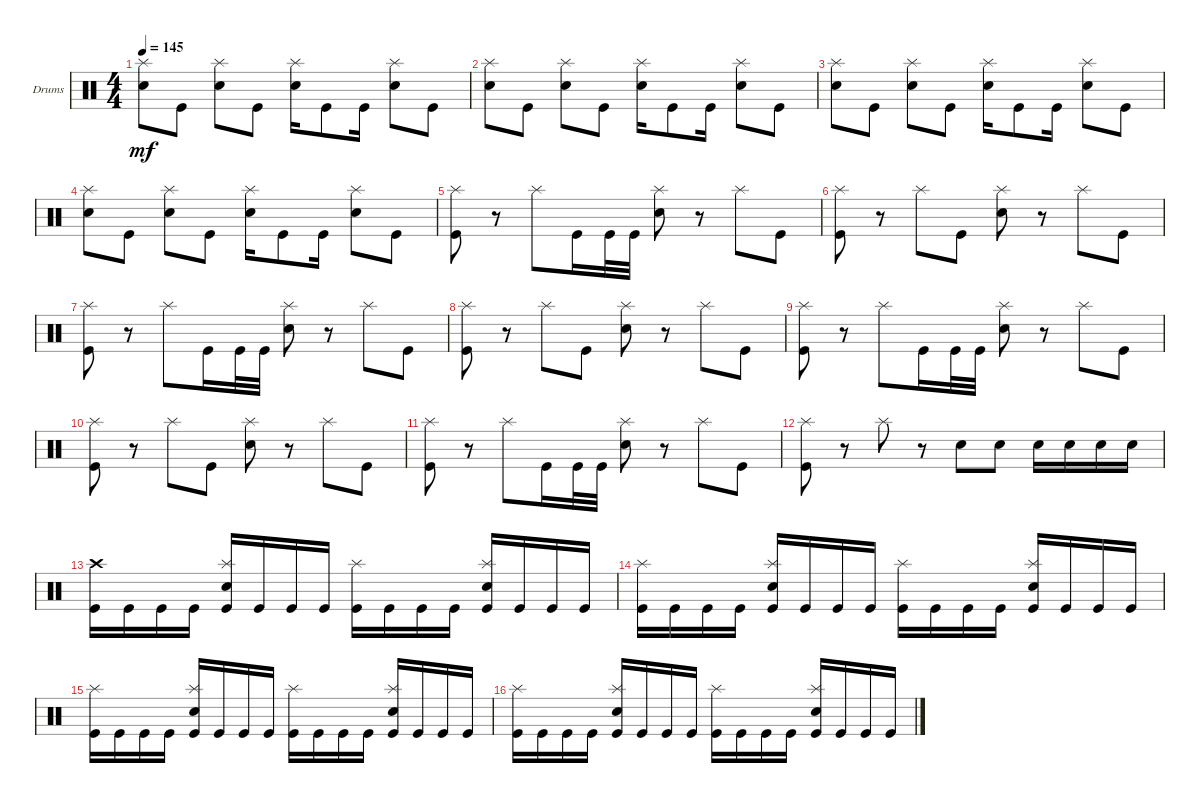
\bracketExtendMode groupsimilarinstruments
\firstSystemTrackNameOrientation horizontal
\otherSystemsTrackNameOrientation horizontal
\track ("Drumkit" "Drums") {instrument percussion}
\staff {score}
\articulation defaults
\ts (4 4)
\tempo 145
\clef neutral
\ks c
("Snare (hit) 2" "Splash (hit)").8{dy mf} "Kick (hit)".8 ("Snare (hit) 2" "Splash (hit)").8 "Kick (hit)".8 ("Snare (hit) 2" "Splash (hit)").16 "Kick (hit)".8 "Kick (hit)".16 ("Snare (hit) 2" "Splash (hit)").8 "Kick (hit)".8 |
("Snare (hit) 2" "Splash (hit)").8 "Kick (hit)".8 ("Snare (hit) 2" "Splash (hit)").8 "Kick (hit)".8 ("Snare (hit) 2" "Splash (hit)").16 "Kick (hit)".8 "Kick (hit)".16 ("Snare (hit) 2" "Splash (hit)").8 "Kick (hit)".8 |
("Snare (hit) 2" "Splash (hit)").8 "Kick (hit)".8 ("Snare (hit) 2" "Splash (hit)").8 "Kick (hit)".8 ("Snare (hit) 2" "Splash (hit)").16 "Kick (hit)".8 "Kick (hit)".16 ("Snare (hit) 2" "Splash (hit)").8 "Kick (hit)".8 |
("Snare (hit) 2" "Splash (hit)").8 "Kick (hit)".8 ("Snare (hit) 2" "Splash (hit)").8 "Kick (hit)".8 ("Snare (hit) 2" "Splash (hit)").16 "Kick (hit)".8 "Kick (hit)".16 ("Snare (hit) 2" "Splash (hit)").8 "Kick (hit)".8 |
("Kick (hit)" "Splash (hit)").8 r.8 "Splash (hit)".8 "Kick (hit)".16 "Kick (hit)".32 "Kick (hit)".32 ("Splash (hit)" "Snare (hit) 2").8 r.8 "Splash (hit)".8 "Kick (hit)".8 |
("Kick (hit)" "Splash (hit)").8 r.8 "Splash (hit)".8 "Kick (hit)".8 ("Splash (hit)" "Snare (hit) 2").8 r.8 "Splash (hit)".8 "Kick (hit)".8 |
("Kick (hit)" "Splash (hit)").8 r.8 "Splash (hit)".8 "Kick (hit)".16 "Kick (hit)".32 "Kick (hit)".32 ("Splash (hit)" "Snare (hit) 2").8 r.8 "Splash (hit)".8 "Kick (hit)".8 |
("Kick (hit)" "Splash (hit)").8 r.8 "Splash (hit)".8 "Kick (hit)".8 ("Splash (hit)" "Snare (hit) 2").8 r.8 "Splash (hit)".8 "Kick (hit)".8 |
("Kick (hit)" "Splash (hit)").8 r.8 "Splash (hit)".8 "Kick (hit)".16 "Kick (hit)".32 "Kick (hit)".32 ("Splash (hit)" "Snare (hit) 2").8 r.8 "Splash (hit)".8 "Kick (hit)".8 |
("Kick (hit)" "Splash (hit)").8 r.8 "Splash (hit)".8 "Kick (hit)".8 ("Splash (hit)" "Snare (hit) 2").8 r.8 "Splash (hit)".8 "Kick (hit)".8 |
("Kick (hit)" "Splash (hit)").8 r.8 "Splash (hit)".8 "Kick (hit)".16 "Kick (hit)".32 "Kick (hit)".32 ("Splash (hit)" "Snare (hit) 2").8 r.8 "Splash (hit)".8 "Kick (hit)".8 |
("Kick (hit)" "Splash (hit)").8 r.8 "Splash (hit)".8 r.8 "Snare (hit) 2".8 "Snare (hit) 2".8 "Snare (hit) 2".16 "Snare (hit) 2".16 "Snare (hit) 2".16 "Snare (hit) 2".16 |
("Kick (hit)" "Crash high (hit)").16 "Kick (hit)".16 "Kick (hit)".16 "Kick (hit)".16 ("Kick (hit)" "Snare (hit) 2" "Splash (hit)").16 "Kick (hit)".16 "Kick (hit)".16 "Kick (hit)".16 ("Kick (hit)" "Splash (hit)").16 "Kick (hit)".16 "Kick (hit)".16 "Kick (hit)".16 ("Kick (hit)" "Snare (hit) 2" "Splash (hit)").16 "Kick (hit)".16 "Kick (hit)".16 "Kick (hit)".16 |
("Kick (hit)" "Splash (hit)").16 "Kick (hit)".16 "Kick (hit)".16 "Kick (hit)".16 ("Kick (hit)" "Snare (hit) 2" "Splash (hit)").16 "Kick (hit)".16 "Kick (hit)".16 "Kick (hit)".16 ("Kick (hit)" "Splash (hit)").16 "Kick (hit)".16 "Kick (hit)".16 "Kick (hit)".16 ("Kick (hit)" "Snare (hit) 2" "Splash (hit)").16 "Kick (hit)".16 "Kick (hit)".16 "Kick (hit)".16 |
("Kick (hit)" "Splash (hit)").16 "Kick (hit)".16 "Kick (hit)".16 "Kick (hit)".16 ("Kick (hit)" "Snare (hit) 2" "Splash (hit)").16 "Kick (hit)".16 "Kick (hit)".16 "Kick (hit)".16 ("Kick (hit)" "Splash (hit)").16 "Kick (hit)".16 "Kick (hit)".16 "Kick (hit)".16 ("Kick (hit)" "Snare (hit) 2" "Splash (hit)").16 "Kick (hit)".16 "Kick (hit)".16 "Kick (hit)".16 |
("Kick (hit)" "Splash (hit)").16 "Kick (hit)".16 "Kick (hit)".16 "Kick (hit)".16 ("Kick (hit)" "Snare (hit) 2" "Splash (hit)").16 "Kick (hit)".16 "Kick (hit)".16 "Kick (hit)".16 ("Kick (hit)" "Splash (hit)").16 "Kick (hit)".16 "Kick (hit)".16 "Kick (hit)".16 ("Kick (hit)" "Snare (hit) 2" "Splash (hit)").16 "Kick (hit)".16 "Kick (hit)".16 "Kick (hit)".16
